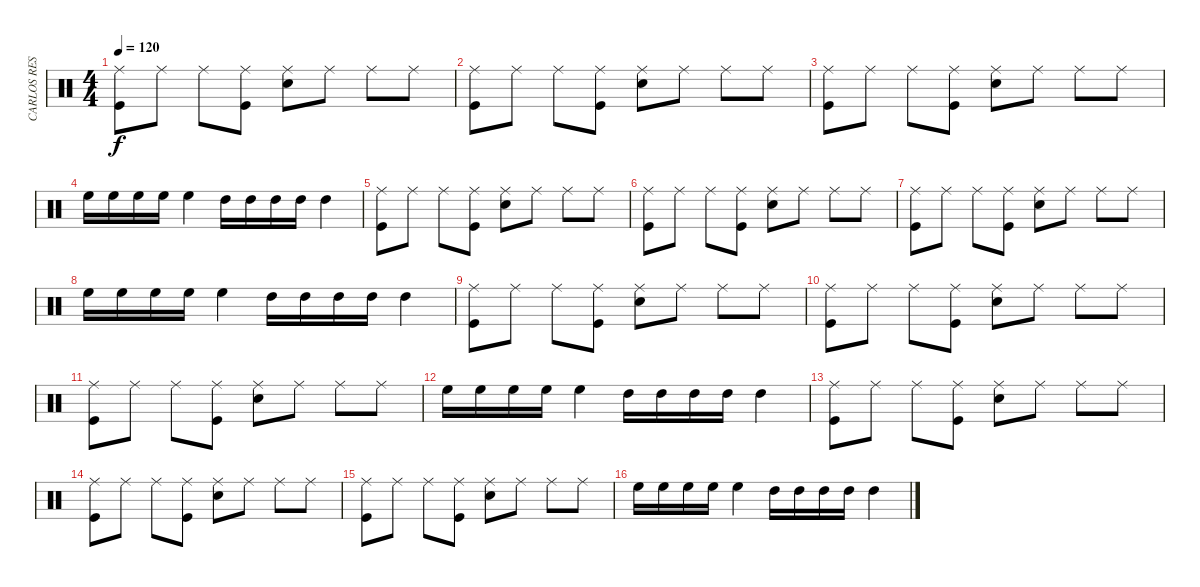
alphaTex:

\track ("CARLOS RESTREPO DARK BATERIA" "CARLOS RES") {instrument percussion}
\staff {score}
\articulation defaults
\ts (4 4)
\tempo 120
\clef neutral
\ks c
("Ride (middle)" "Kick (hit)").8{dy f} "Ride (middle)".8 "Ride (middle)".8 ("Ride (middle)" "Kick (hit)").8 ("Ride (middle)" "Snare (hit) 2").8 "Ride (middle)".8 "Ride (middle)".8 "Ride (middle)".8 |
("Ride (middle)" "Kick (hit)").8 "Ride (middle)".8 "Ride (middle)".8 ("Ride (middle)" "Kick (hit)").8 ("Ride (middle)" "Snare (hit) 2").8 "Ride (middle)".8 "Ride (middle)".8 "Ride (middle)".8 |
("Ride (middle)" "Kick (hit)").8 "Ride (middle)".8 "Ride (middle)".8 ("Ride (middle)" "Kick (hit)").8 ("Ride (middle)" "Snare (hit) 2").8 "Ride (middle)".8 "Ride (middle)".8 "Ride (middle)".8 |
"High Floor Tom (hit)".16 "High Floor Tom (hit)".16 "High Floor Tom (hit)".16 "High Floor Tom (hit)".16 "High Floor Tom (hit)".4 "High Tom (hit)".16 "High Tom (hit)".16 "High Tom (hit)".16 "High Tom (hit)".16 "High Tom (hit)".4 |
("Ride (middle)" "Kick (hit)").8 "Ride (middle)".8 "Ride (middle)".8 ("Ride (middle)" "Kick (hit)").8 ("Ride (middle)" "Snare (hit) 2").8 "Ride (middle)".8 "Ride (middle)".8 "Ride (middle)".8 |
("Ride (middle)" "Kick (hit)").8 "Ride (middle)".8 "Ride (middle)".8 ("Ride (middle)" "Kick (hit)").8 ("Ride (middle)" "Snare (hit) 2").8 "Ride (middle)".8 "Ride (middle)".8 "Ride (middle)".8 |
("Ride (middle)" "Kick (hit)").8 "Ride (middle)".8 "Ride (middle)".8 ("Ride (middle)" "Kick (hit)").8 ("Ride (middle)" "Snare (hit) 2").8 "Ride (middle)".8 "Ride (middle)".8 "Ride (middle)".8 |
"High Floor Tom (hit)".16 "High Floor Tom (hit)".16 "High Floor Tom (hit)".16 "High Floor Tom (hit)".16 "High Floor Tom (hit)".4 "High Tom (hit)".16 "High Tom (hit)".16 "High Tom (hit)".16 "High Tom (hit)".16 "High Tom (hit)".4 |
("Ride (middle)" "Kick (hit)").8 "Ride (middle)".8 "Ride (middle)".8 ("Ride (middle)" "Kick (hit)").8 ("Ride (middle)" "Snare (hit) 2").8 "Ride (middle)".8 "Ride (middle)".8 "Ride (middle)".8 |
("Ride (middle)" "Kick (hit)").8 "Ride (middle)".8 "Ride (middle)".8 ("Ride (middle)" "Kick (hit)").8 ("Ride (middle)" "Snare (hit) 2").8 "Ride (middle)".8 "Ride (middle)".8 "Ride (middle)".8 |
("Ride (middle)" "Kick (hit)").8 "Ride (middle)".8 "Ride (middle)".8 ("Ride (middle)" "Kick (hit)").8 ("Ride (middle)" "Snare (hit) 2").8 "Ride (middle)".8 "Ride (middle)".8 "Ride (middle)".8 |
"High Floor Tom (hit)".16 "High Floor Tom (hit)".16 "High Floor Tom (hit)".16 "High Floor Tom (hit)".16 "High Floor Tom (hit)".4 "High Tom (hit)".16 "High Tom (hit)".16 "High Tom (hit)".16 "High Tom (hit)".16 "High Tom (hit)".4 |
("Ride (middle)" "Kick (hit)").8 "Ride (middle)".8 "Ride (middle)".8 ("Ride (middle)" "Kick (hit)").8 ("Ride (middle)" "Snare (hit) 2").8 "Ride (middle)".8 "Ride (middle)".8 "Ride (middle)".8 |
("Ride (middle)" "Kick (hit)").8 "Ride (middle)".8 "Ride (middle)".8 ("Ride (middle)" "Kick (hit)").8 ("Ride (middle)" "Snare (hit) 2").8 "Ride (middle)".8 "Ride (middle)".8 "Ride (middle)".8 |
("Ride (middle)" "Kick (hit)").8 "Ride (middle)".8 "Ride (middle)".8 ("Ride (middle)" "Kick (hit)").8 ("Ride (middle)" "Snare (hit) 2").8 "Ride (middle)".8 "Ride (middle)".8 "Ride (middle)".8 |
"High Floor Tom (hit)".16 "High Floor Tom (hit)".16 "High Floor Tom (hit)".16 "High Floor Tom (hit)".16 "High Floor Tom (hit)".4 "High Tom (hit)".16 "High Tom (hit)".16 "High Tom (hit)".16 "High Tom (hit)".16 "High Tom (hit)".4
